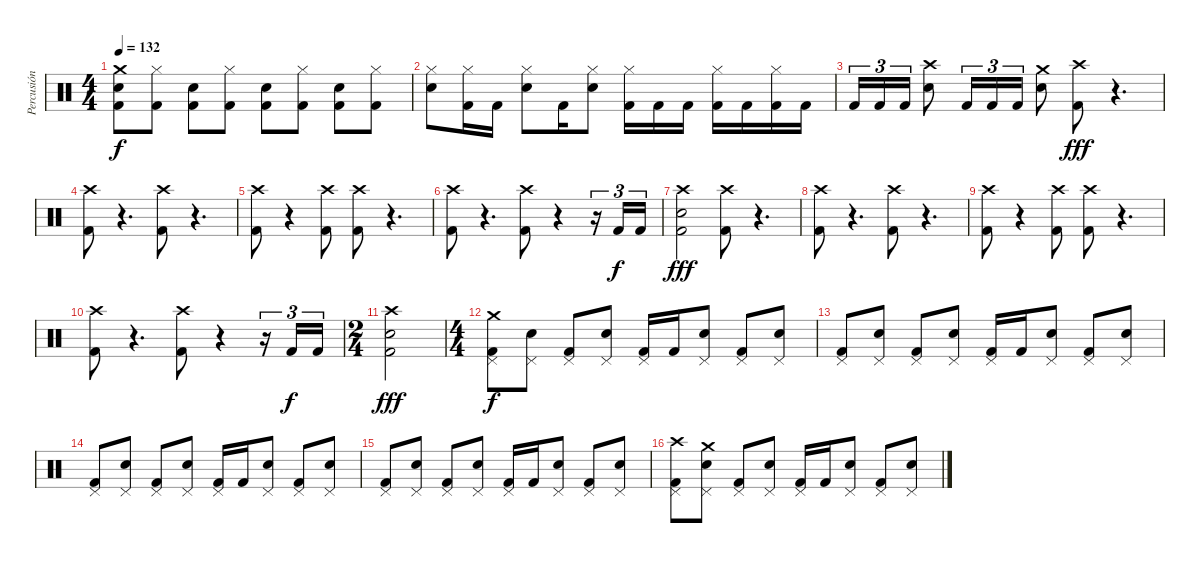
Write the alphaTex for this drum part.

\track ("Percusión" "Percusión") {instrument percussion}
\staff {score}
\articulation defaults
\ts (4 4)
\tempo 132
\clef neutral
\ks c
("Crash medium (hit)" "Electric Snare (hit)" "Kick (hit) 2").8{dy f} ("Hi-Hat (closed)" "Kick (hit) 2").8 ("Electric Snare (hit)" "Kick (hit) 2").8 ("Hi-Hat (closed)" "Kick (hit) 2").8 ("Electric Snare (hit)" "Kick (hit) 2").8 ("Hi-Hat (closed)" "Kick (hit) 2").8 ("Electric Snare (hit)" "Kick (hit) 2").8 ("Hi-Hat (closed)" "Kick (hit) 2").8 |
("Hi-Hat (closed)" "Electric Snare (hit)").8 ("Hi-Hat (closed)" "Kick (hit) 2").16 "Kick (hit) 2".16 ("Hi-Hat (closed)" "Electric Snare (hit)").8 "Kick (hit) 2".16 ("Hi-Hat (closed)" "Electric Snare (hit)").8 ("Hi-Hat (closed)" "Kick (hit) 2").16 "Kick (hit) 2".16 "Kick (hit) 2".16 ("Hi-Hat (closed)" "Kick (hit) 2").16 "Kick (hit) 2".16 ("Hi-Hat (closed)" "Kick (hit) 2").16 "Kick (hit) 2".16 |
"Kick (hit) 2".16{tu (3 2)} "Kick (hit) 2".16{tu (3 2)} "Kick (hit) 2".16{tu (3 2)} ("Crash high (hit)" "Electric Snare (hit)").8 "Kick (hit) 2".16{tu (3 2)} "Kick (hit) 2".16{tu (3 2)} "Kick (hit) 2".16{tu (3 2)} ("Crash medium (hit)" "Electric Snare (hit)").8 ("Crash high (hit)" "Kick (hit) 2").8{dy fff} r.4{d} |
("Crash high (hit)" "Kick (hit) 2").8 r.4{d} ("Crash high (hit)" "Kick (hit) 2").8 r.4{d} |
("Crash high (hit)" "Kick (hit) 2").8 r.4 ("Crash high (hit)" "Kick (hit) 2").8 ("Crash high (hit)" "Kick (hit) 2").8 r.4{d} |
("Crash high (hit)" "Kick (hit) 2").8 r.4{d} ("Crash high (hit)" "Kick (hit) 2").8 r.4 r.16{tu (3 2)} "Kick (hit) 2".16{tu (3 2) dy f} "Kick (hit) 2".16{tu (3 2)} |
("Crash high (hit)" "Electric Snare (hit)" "Kick (hit) 2").2{dy fff} ("Crash high (hit)" "Kick (hit) 2").8 r.4{d} |
("Crash high (hit)" "Kick (hit) 2").8 r.4{d} ("Crash high (hit)" "Kick (hit) 2").8 r.4{d} |
("Crash high (hit)" "Kick (hit) 2").8 r.4 ("Crash high (hit)" "Kick (hit) 2").8 ("Crash high (hit)" "Kick (hit) 2").8 r.4{d} |
("Crash high (hit)" "Kick (hit) 2").8 r.4{d} ("Crash high (hit)" "Kick (hit) 2").8 r.4 r.16{tu (3 2)} "Kick (hit) 2".16{tu (3 2) dy f} "Kick (hit) 2".16{tu (3 2)} |
\ts (2 4)
("Crash high (hit)" "Electric Snare (hit)" "Kick (hit) 2").2{dy fff} |
\ts (4 4)
("Pedal Hi-Hat (hit)" "Crash medium (hit)" "Kick (hit) 2").8{dy f} ("Pedal Hi-Hat (hit)" "Electric Snare (hit)").8 ("Pedal Hi-Hat (hit)" "Kick (hit) 2").8 ("Pedal Hi-Hat (hit)" "Electric Snare (hit)").8 ("Pedal Hi-Hat (hit)" "Kick (hit) 2").16 "Kick (hit) 2".16 ("Pedal Hi-Hat (hit)" "Electric Snare (hit)").8 ("Pedal Hi-Hat (hit)" "Kick (hit) 2").8 ("Pedal Hi-Hat (hit)" "Electric Snare (hit)").8 |
("Pedal Hi-Hat (hit)" "Kick (hit) 2").8 ("Pedal Hi-Hat (hit)" "Electric Snare (hit)").8 ("Pedal Hi-Hat (hit)" "Kick (hit) 2").8 ("Pedal Hi-Hat (hit)" "Electric Snare (hit)").8 ("Pedal Hi-Hat (hit)" "Kick (hit) 2").16 "Kick (hit) 2".16 ("Pedal Hi-Hat (hit)" "Electric Snare (hit)").8 ("Pedal Hi-Hat (hit)" "Kick (hit) 2").8 ("Pedal Hi-Hat (hit)" "Electric Snare (hit)").8 |
("Pedal Hi-Hat (hit)" "Kick (hit) 2").8 ("Pedal Hi-Hat (hit)" "Electric Snare (hit)").8 ("Pedal Hi-Hat (hit)" "Kick (hit) 2").8 ("Pedal Hi-Hat (hit)" "Electric Snare (hit)").8 ("Pedal Hi-Hat (hit)" "Kick (hit) 2").16 "Kick (hit) 2".16 ("Pedal Hi-Hat (hit)" "Electric Snare (hit)").8 ("Pedal Hi-Hat (hit)" "Kick (hit) 2").8 ("Pedal Hi-Hat (hit)" "Electric Snare (hit)").8 |
("Pedal Hi-Hat (hit)" "Kick (hit) 2").8 ("Pedal Hi-Hat (hit)" "Electric Snare (hit)").8 ("Pedal Hi-Hat (hit)" "Kick (hit) 2").8 ("Pedal Hi-Hat (hit)" "Electric Snare (hit)").8 ("Pedal Hi-Hat (hit)" "Kick (hit) 2").16 "Kick (hit) 2".16 ("Pedal Hi-Hat (hit)" "Electric Snare (hit)").8 ("Pedal Hi-Hat (hit)" "Kick (hit) 2").8 ("Pedal Hi-Hat (hit)" "Electric Snare (hit)").8 |
("Pedal Hi-Hat (hit)" "Crash high (hit)" "Kick (hit) 2").8 ("Pedal Hi-Hat (hit)" "Crash medium (hit)" "Electric Snare (hit)").8 ("Pedal Hi-Hat (hit)" "Kick (hit) 2").8 ("Pedal Hi-Hat (hit)" "Electric Snare (hit)").8 ("Pedal Hi-Hat (hit)" "Kick (hit) 2").16 "Kick (hit) 2".16 ("Pedal Hi-Hat (hit)" "Electric Snare (hit)").8 ("Pedal Hi-Hat (hit)" "Kick (hit) 2").8 ("Pedal Hi-Hat (hit)" "Electric Snare (hit)").8
